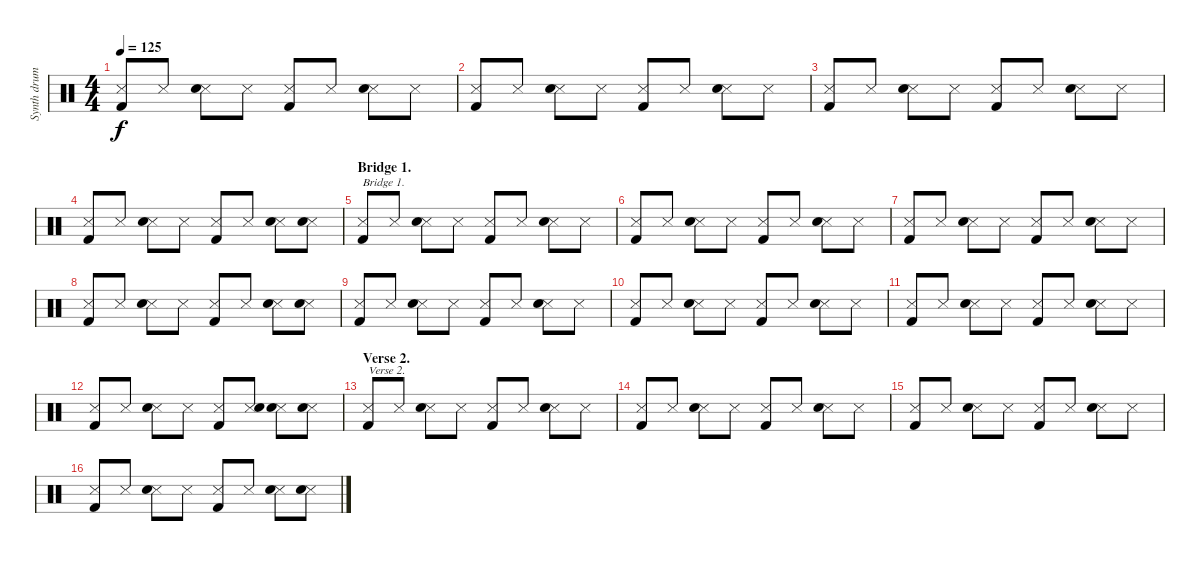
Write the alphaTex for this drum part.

\track ("Synth drums" "Synth drum") {instrument percussion}
\staff {score}
\articulation defaults
\ts (4 4)
\tempo 125
\clef neutral
\ks c
("Snare (side stick) 3" "Kick (hit) 2").8{dy f} "Snare (side stick) 3".8 ("Snare (side stick) 3" "Electric Snare (hit)").8 "Snare (side stick) 3".8 ("Snare (side stick) 3" "Kick (hit) 2").8 "Snare (side stick) 3".8 ("Snare (side stick) 3" "Electric Snare (hit)").8 "Snare (side stick) 3".8 |
("Snare (side stick) 3" "Kick (hit) 2").8 "Snare (side stick) 3".8 ("Snare (side stick) 3" "Electric Snare (hit)").8 "Snare (side stick) 3".8 ("Snare (side stick) 3" "Kick (hit) 2").8 "Snare (side stick) 3".8 ("Snare (side stick) 3" "Electric Snare (hit)").8 "Snare (side stick) 3".8 |
("Snare (side stick) 3" "Kick (hit) 2").8 "Snare (side stick) 3".8 ("Snare (side stick) 3" "Electric Snare (hit)").8 "Snare (side stick) 3".8 ("Snare (side stick) 3" "Kick (hit) 2").8 "Snare (side stick) 3".8 ("Snare (side stick) 3" "Electric Snare (hit)").8 "Snare (side stick) 3".8 |
("Snare (side stick) 3" "Kick (hit) 2").8 "Snare (side stick) 3".8 ("Snare (side stick) 3" "Electric Snare (hit)").8 "Snare (side stick) 3".8 ("Snare (side stick) 3" "Kick (hit) 2").8 "Snare (side stick) 3".8 ("Snare (side stick) 3" "Electric Snare (hit)").8 ("Snare (side stick) 3" "Electric Snare (hit)").8 |
\section ("" "Bridge 1.")
("Snare (side stick) 3" "Kick (hit) 2").8{txt "Bridge 1."} "Snare (side stick) 3".8 ("Snare (side stick) 3" "Electric Snare (hit)").8 "Snare (side stick) 3".8 ("Snare (side stick) 3" "Kick (hit) 2").8 "Snare (side stick) 3".8 ("Snare (side stick) 3" "Electric Snare (hit)").8 "Snare (side stick) 3".8 |
("Snare (side stick) 3" "Kick (hit) 2").8 "Snare (side stick) 3".8 ("Snare (side stick) 3" "Electric Snare (hit)").8 "Snare (side stick) 3".8 ("Snare (side stick) 3" "Kick (hit) 2").8 "Snare (side stick) 3".8 ("Snare (side stick) 3" "Electric Snare (hit)").8 "Snare (side stick) 3".8 |
("Snare (side stick) 3" "Kick (hit) 2").8 "Snare (side stick) 3".8 ("Snare (side stick) 3" "Electric Snare (hit)").8 "Snare (side stick) 3".8 ("Snare (side stick) 3" "Kick (hit) 2").8 "Snare (side stick) 3".8 ("Snare (side stick) 3" "Electric Snare (hit)").8 "Snare (side stick) 3".8 |
("Snare (side stick) 3" "Kick (hit) 2").8 "Snare (side stick) 3".8 ("Snare (side stick) 3" "Electric Snare (hit)").8 "Snare (side stick) 3".8 ("Snare (side stick) 3" "Kick (hit) 2").8 "Snare (side stick) 3".8 ("Snare (side stick) 3" "Electric Snare (hit)").8 ("Snare (side stick) 3" "Electric Snare (hit)").8 |
("Snare (side stick) 3" "Kick (hit) 2").8 "Snare (side stick) 3".8 ("Snare (side stick) 3" "Electric Snare (hit)").8 "Snare (side stick) 3".8 ("Snare (side stick) 3" "Kick (hit) 2").8 "Snare (side stick) 3".8 ("Snare (side stick) 3" "Electric Snare (hit)").8 "Snare (side stick) 3".8 |
("Snare (side stick) 3" "Kick (hit) 2").8 "Snare (side stick) 3".8 ("Snare (side stick) 3" "Electric Snare (hit)").8 "Snare (side stick) 3".8 ("Snare (side stick) 3" "Kick (hit) 2").8 "Snare (side stick) 3".8 ("Snare (side stick) 3" "Electric Snare (hit)").8 "Snare (side stick) 3".8 |
("Snare (side stick) 3" "Kick (hit) 2").8 "Snare (side stick) 3".8 ("Snare (side stick) 3" "Electric Snare (hit)").8 "Snare (side stick) 3".8 ("Snare (side stick) 3" "Kick (hit) 2").8 "Snare (side stick) 3".8 ("Snare (side stick) 3" "Electric Snare (hit)").8 "Snare (side stick) 3".8 |
("Snare (side stick) 3" "Kick (hit) 2").8 "Snare (side stick) 3".8 ("Snare (side stick) 3" "Electric Snare (hit)").8 "Snare (side stick) 3".8 ("Snare (side stick) 3" "Kick (hit) 2").8 ("Snare (side stick) 3" "Electric Snare (hit)").8 ("Snare (side stick) 3" "Electric Snare (hit)").8 ("Snare (side stick) 3" "Electric Snare (hit)").8 |
\section ("" "Verse 2.")
("Snare (side stick) 3" "Kick (hit) 2").8{txt "Verse 2."} "Snare (side stick) 3".8 ("Snare (side stick) 3" "Electric Snare (hit)").8 "Snare (side stick) 3".8 ("Snare (side stick) 3" "Kick (hit) 2").8 "Snare (side stick) 3".8 ("Snare (side stick) 3" "Electric Snare (hit)").8 "Snare (side stick) 3".8 |
("Snare (side stick) 3" "Kick (hit) 2").8 "Snare (side stick) 3".8 ("Snare (side stick) 3" "Electric Snare (hit)").8 "Snare (side stick) 3".8 ("Snare (side stick) 3" "Kick (hit) 2").8 "Snare (side stick) 3".8 ("Snare (side stick) 3" "Electric Snare (hit)").8 "Snare (side stick) 3".8 |
("Snare (side stick) 3" "Kick (hit) 2").8 "Snare (side stick) 3".8 ("Snare (side stick) 3" "Electric Snare (hit)").8 "Snare (side stick) 3".8 ("Snare (side stick) 3" "Kick (hit) 2").8 "Snare (side stick) 3".8 ("Snare (side stick) 3" "Electric Snare (hit)").8 "Snare (side stick) 3".8 |
("Snare (side stick) 3" "Kick (hit) 2").8 "Snare (side stick) 3".8 ("Snare (side stick) 3" "Electric Snare (hit)").8 "Snare (side stick) 3".8 ("Snare (side stick) 3" "Kick (hit) 2").8 "Snare (side stick) 3".8 ("Snare (side stick) 3" "Electric Snare (hit)").8 ("Snare (side stick) 3" "Electric Snare (hit)").8
